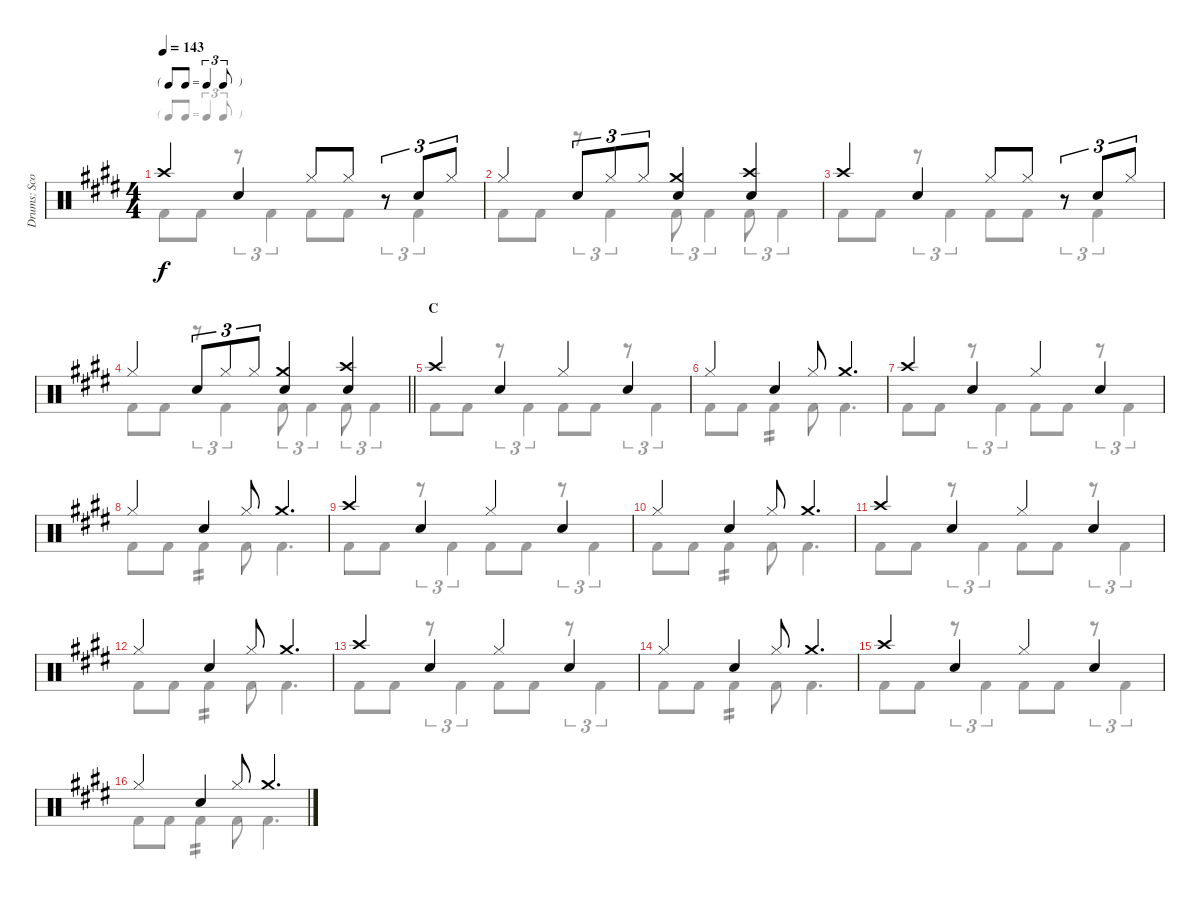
\track ("Drums: Scott" "Drums: Sco") {instrument percussion}
\staff {score}
\articulation defaults
\voice
\ts (4 4)
\tf triplet8th
\tempo 143
\clef neutral
\ks e "Crash high (hit)".4{dy f} "Snare (hit) 2".4 "Hi-Hat (closed)".8 "Hi-Hat (closed)".8
r.8{tu (3 2)} "Snare (hit) 2".8{tu (3 2)} "Hi-Hat (closed)".8{tu (3 2)} |
"Hi-Hat (closed)".4 "Snare (hit) 2".8{tu (3 2)} "Hi-Hat (closed)".8{tu (3 2)} "Hi-Hat (closed)".8{tu (3 2)} ("Crash medium (hit)" "Snare (hit) 2").4 ("Crash high (hit)" "Snare (hit) 2").4 |
"Crash high (hit)".4 "Snare (hit) 2".4 "Hi-Hat (closed)".8 "Hi-Hat (closed)".8 r.8{tu (3 2)} "Snare (hit) 2".8{tu (3 2)} "Hi-Hat (closed)".8{tu (3 2)} |
\barLineRight lightlight "Hi-Hat (closed)".4 "Snare (hit) 2".8{tu (3 2)} "Hi-Hat (closed)".8{tu (3 2)} "Hi-Hat (closed)".8{tu (3 2)}
("Crash medium (hit)" "Snare (hit) 2").4 ("Crash high (hit)" "Snare (hit) 2").4 |
\section ("" "C")
"Crash high (hit)".4 "Snare (hit) 2".4 "Hi-Hat (closed)".4 "Snare (hit) 2".4 |
"Hi-Hat (closed)".4 "Snare (hit) 2".4 "Hi-Hat (closed)".8 "Crash medium (hit)".4{d} |
"Crash high (hit)".4 "Snare (hit) 2".4 "Hi-Hat (closed)".4 "Snare (hit) 2".4 |
"Hi-Hat (closed)".4 "Snare (hit) 2".4 "Hi-Hat (closed)".8 "Crash medium (hit)".4{d} |
"Crash high (hit)".4 "Snare (hit) 2".4 "Hi-Hat (closed)".4 "Snare (hit) 2".4 |
"Hi-Hat (closed)".4 "Snare (hit) 2".4 "Hi-Hat (closed)".8 "Crash medium (hit)".4{d} |
"Crash high (hit)".4 "Snare (hit) 2".4 "Hi-Hat (closed)".4 "Snare (hit) 2".4 |
"Hi-Hat (closed)".4 "Snare (hit) 2".4 "Hi-Hat (closed)".8 "Crash medium (hit)".4{d} |
"Crash high (hit)".4 "Snare (hit) 2".4 "Hi-Hat (closed)".4 "Snare (hit) 2".4 |
"Hi-Hat (closed)".4 "Snare (hit) 2".4 "Hi-Hat (closed)".8 "Crash medium (hit)".4{d} |
"Crash high (hit)".4 "Snare (hit) 2".4 "Hi-Hat (closed)".4 "Snare (hit) 2".4 |
"Hi-Hat (closed)".4 "Snare (hit) 2".4 "Hi-Hat (closed)".8 "Crash medium (hit)".4{d}
\voice
\clef neutral
\ottava regular
\simile none
\ks e "Kick (hit) 2".8{dy f} "Kick (hit) 2".8
r.8{tu (3 2)} "Kick (hit) 2".4{tu (3 2)} "Kick (hit) 2".8 "Kick (hit) 2".8 r.8{tu (3 2)} "Kick (hit) 2".4{tu (3 2)} |
"Kick (hit) 2".8 "Kick (hit) 2".8 r.8{tu (3 2)} "Kick (hit) 2".4{tu (3 2)} "Kick (hit) 2".8{tu (3 2)} "Kick (hit) 2".4{tu (3 2)} "Kick (hit) 2".8{tu (3 2)} "Kick (hit) 2".4{tu (3 2)} |
"Kick (hit) 2".8 "Kick (hit) 2".8 r.8{tu (3 2)} "Kick (hit) 2".4{tu (3 2)} "Kick (hit) 2".8 "Kick (hit) 2".8 r.8{tu (3 2)} "Kick (hit) 2".4{tu (3 2)} |
\barLineRight lightlight "Kick (hit) 2".8 "Kick (hit) 2".8
r.8{tu (3 2)} "Kick (hit) 2".4{tu (3 2)} "Kick (hit) 2".8{tu (3 2)} "Kick (hit) 2".4{tu (3 2)} "Kick (hit) 2".8{tu (3 2)} "Kick (hit) 2".4{tu (3 2)} |
"Kick (hit) 2".8 "Kick (hit) 2".8 r.8{tu (3 2)} "Kick (hit) 2".4{tu (3 2)} "Kick (hit) 2".8 "Kick (hit) 2".8 r.8{tu (3 2)} "Kick (hit) 2".4{tu (3 2)} |
"Kick (hit) 2".8 "Kick (hit) 2".8 "Kick (hit) 2".4{tp 2} "Kick (hit) 2".8 "Kick (hit) 2".4{d} |
"Kick (hit) 2".8 "Kick (hit) 2".8 r.8{tu (3 2)} "Kick (hit) 2".4{tu (3 2)} "Kick (hit) 2".8 "Kick (hit) 2".8 r.8{tu (3 2)} "Kick (hit) 2".4{tu (3 2)} |
"Kick (hit) 2".8 "Kick (hit) 2".8 "Kick (hit) 2".4{tp 2} "Kick (hit) 2".8 "Kick (hit) 2".4{d} |
"Kick (hit) 2".8 "Kick (hit) 2".8 r.8{tu (3 2)} "Kick (hit) 2".4{tu (3 2)} "Kick (hit) 2".8 "Kick (hit) 2".8 r.8{tu (3 2)} "Kick (hit) 2".4{tu (3 2)} |
"Kick (hit) 2".8 "Kick (hit) 2".8 "Kick (hit) 2".4{tp 2} "Kick (hit) 2".8 "Kick (hit) 2".4{d} |
"Kick (hit) 2".8 "Kick (hit) 2".8 r.8{tu (3 2)} "Kick (hit) 2".4{tu (3 2)} "Kick (hit) 2".8 "Kick (hit) 2".8 r.8{tu (3 2)} "Kick (hit) 2".4{tu (3 2)} |
"Kick (hit) 2".8 "Kick (hit) 2".8 "Kick (hit) 2".4{tp 2} "Kick (hit) 2".8 "Kick (hit) 2".4{d} |
"Kick (hit) 2".8 "Kick (hit) 2".8 r.8{tu (3 2)} "Kick (hit) 2".4{tu (3 2)} "Kick (hit) 2".8 "Kick (hit) 2".8 r.8{tu (3 2)} "Kick (hit) 2".4{tu (3 2)} |
"Kick (hit) 2".8 "Kick (hit) 2".8 "Kick (hit) 2".4{tp 2} "Kick (hit) 2".8 "Kick (hit) 2".4{d} |
"Kick (hit) 2".8 "Kick (hit) 2".8 r.8{tu (3 2)} "Kick (hit) 2".4{tu (3 2)} "Kick (hit) 2".8 "Kick (hit) 2".8 r.8{tu (3 2)} "Kick (hit) 2".4{tu (3 2)} |
"Kick (hit) 2".8 "Kick (hit) 2".8 "Kick (hit) 2".4{tp 2} "Kick (hit) 2".8 "Kick (hit) 2".4{d}
